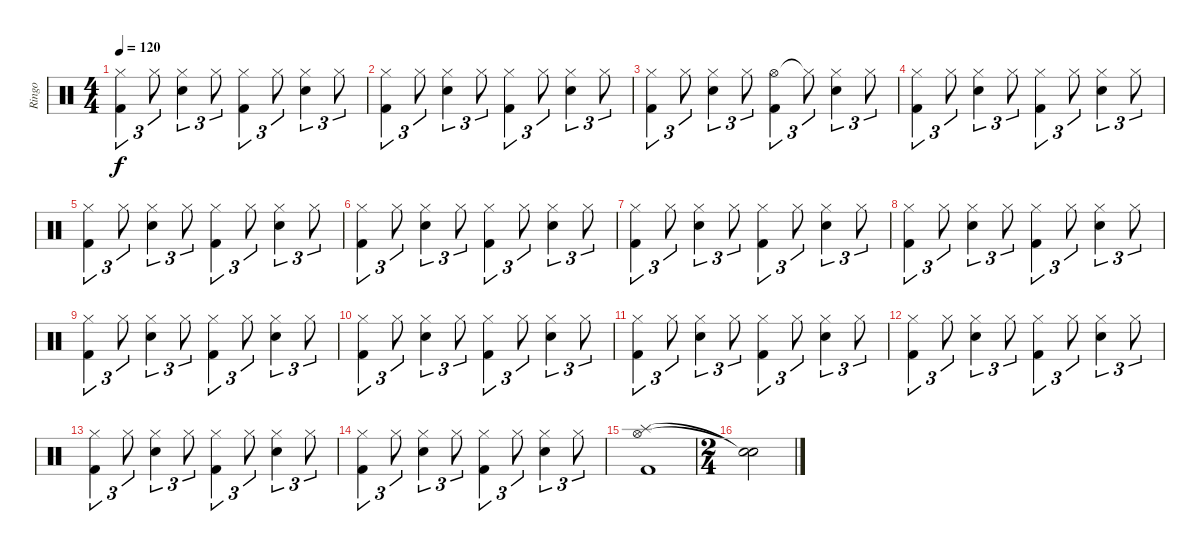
\track ("Ringo" "Ringo") {instrument percussion}
\staff {score}
\articulation defaults
\ts (4 4)
\tempo 120
\clef neutral
\ks c
("Hi-Hat (closed)" "Kick (hit) 2").4{tu (3 2) dy f} "Hi-Hat (closed)".8{tu (3 2)} ("Hi-Hat (closed)" "Snare (hit) 2").4{tu (3 2)} "Hi-Hat (closed)".8{tu (3 2)} ("Hi-Hat (closed)" "Kick (hit) 2").4{tu (3 2)} "Hi-Hat (closed)".8{tu (3 2)} ("Hi-Hat (closed)" "Snare (hit) 2").4{tu (3 2)} "Hi-Hat (closed)".8{tu (3 2)} |
("Hi-Hat (closed)" "Kick (hit) 2").4{tu (3 2)} "Hi-Hat (closed)".8{tu (3 2)} ("Hi-Hat (closed)" "Snare (hit) 2").4{tu (3 2)} "Hi-Hat (closed)".8{tu (3 2)} ("Hi-Hat (closed)" "Kick (hit) 2").4{tu (3 2)} "Hi-Hat (closed)".8{tu (3 2)} ("Hi-Hat (closed)" "Snare (hit) 2").4{tu (3 2)} "Hi-Hat (closed)".8{tu (3 2)} |
("Hi-Hat (closed)" "Kick (hit) 2").4{tu (3 2)} "Hi-Hat (closed)".8{tu (3 2)} ("Hi-Hat (closed)" "Snare (hit) 2").4{tu (3 2)} "Hi-Hat (closed)".8{tu (3 2)} ("Hi-Hat (open)" "Kick (hit) 2").4{tu (3 2)} "Hi-Hat (closed)"{t}.8{tu (3 2)} ("Hi-Hat (closed)" "Snare (hit) 2").4{tu (3 2)} "Hi-Hat (closed)".8{tu (3 2)} |
("Hi-Hat (closed)" "Kick (hit) 2").4{tu (3 2)} "Hi-Hat (closed)".8{tu (3 2)} ("Hi-Hat (closed)" "Snare (hit) 2").4{tu (3 2)} "Hi-Hat (closed)".8{tu (3 2)} ("Hi-Hat (closed)" "Kick (hit) 2").4{tu (3 2)} "Hi-Hat (closed)".8{tu (3 2)} ("Hi-Hat (closed)" "Snare (hit) 2").4{tu (3 2)} "Hi-Hat (closed)".8{tu (3 2)} |
("Hi-Hat (closed)" "Kick (hit) 2").4{tu (3 2)} "Hi-Hat (closed)".8{tu (3 2)} ("Hi-Hat (closed)" "Snare (hit) 2").4{tu (3 2)} "Hi-Hat (closed)".8{tu (3 2)} ("Hi-Hat (closed)" "Kick (hit) 2").4{tu (3 2)} "Hi-Hat (closed)".8{tu (3 2)} ("Hi-Hat (closed)" "Snare (hit) 2").4{tu (3 2)} "Hi-Hat (closed)".8{tu (3 2)} |
("Hi-Hat (closed)" "Kick (hit) 2").4{tu (3 2)} "Hi-Hat (closed)".8{tu (3 2)} ("Hi-Hat (closed)" "Snare (hit) 2").4{tu (3 2)} "Hi-Hat (closed)".8{tu (3 2)} ("Hi-Hat (closed)" "Kick (hit) 2").4{tu (3 2)} "Hi-Hat (closed)".8{tu (3 2)} ("Hi-Hat (closed)" "Snare (hit) 2").4{tu (3 2)} "Hi-Hat (closed)".8{tu (3 2)} |
("Hi-Hat (closed)" "Kick (hit) 2").4{tu (3 2)} "Hi-Hat (closed)".8{tu (3 2)} ("Hi-Hat (closed)" "Snare (hit) 2").4{tu (3 2)} "Hi-Hat (closed)".8{tu (3 2)} ("Hi-Hat (closed)" "Kick (hit) 2").4{tu (3 2)} "Hi-Hat (closed)".8{tu (3 2)} ("Hi-Hat (closed)" "Snare (hit) 2").4{tu (3 2)} "Hi-Hat (closed)".8{tu (3 2)} |
("Hi-Hat (closed)" "Kick (hit) 2").4{tu (3 2)} "Hi-Hat (closed)".8{tu (3 2)} ("Hi-Hat (closed)" "Snare (hit) 2").4{tu (3 2)} "Hi-Hat (closed)".8{tu (3 2)} ("Hi-Hat (closed)" "Kick (hit) 2").4{tu (3 2)} "Hi-Hat (closed)".8{tu (3 2)} ("Hi-Hat (closed)" "Snare (hit) 2").4{tu (3 2)} "Hi-Hat (closed)".8{tu (3 2)} |
("Hi-Hat (closed)" "Kick (hit) 2").4{tu (3 2)} "Hi-Hat (closed)".8{tu (3 2)} ("Hi-Hat (closed)" "Snare (hit) 2").4{tu (3 2)} "Hi-Hat (closed)".8{tu (3 2)} ("Hi-Hat (closed)" "Kick (hit) 2").4{tu (3 2)} "Hi-Hat (closed)".8{tu (3 2)} ("Hi-Hat (closed)" "Snare (hit) 2").4{tu (3 2)} "Hi-Hat (closed)".8{tu (3 2)} |
("Hi-Hat (closed)" "Kick (hit) 2").4{tu (3 2)} "Hi-Hat (closed)".8{tu (3 2)} ("Hi-Hat (closed)" "Snare (hit) 2").4{tu (3 2)} "Hi-Hat (closed)".8{tu (3 2)} ("Hi-Hat (closed)" "Kick (hit) 2").4{tu (3 2)} "Hi-Hat (closed)".8{tu (3 2)} ("Hi-Hat (closed)" "Snare (hit) 2").4{tu (3 2)} "Hi-Hat (closed)".8{tu (3 2)} |
("Hi-Hat (closed)" "Kick (hit) 2").4{tu (3 2)} "Hi-Hat (closed)".8{tu (3 2)} ("Hi-Hat (closed)" "Snare (hit) 2").4{tu (3 2)} "Hi-Hat (closed)".8{tu (3 2)} ("Hi-Hat (closed)" "Kick (hit) 2").4{tu (3 2)} "Hi-Hat (closed)".8{tu (3 2)} ("Hi-Hat (closed)" "Snare (hit) 2").4{tu (3 2)} "Hi-Hat (closed)".8{tu (3 2)} |
("Hi-Hat (closed)" "Kick (hit) 2").4{tu (3 2)} "Hi-Hat (closed)".8{tu (3 2)} ("Hi-Hat (closed)" "Snare (hit) 2").4{tu (3 2)} "Hi-Hat (closed)".8{tu (3 2)} ("Hi-Hat (closed)" "Kick (hit) 2").4{tu (3 2)} "Hi-Hat (closed)".8{tu (3 2)} ("Hi-Hat (closed)" "Snare (hit) 2").4{tu (3 2)} "Hi-Hat (closed)".8{tu (3 2)} |
("Hi-Hat (closed)" "Kick (hit) 2").4{tu (3 2)} "Hi-Hat (closed)".8{tu (3 2)} ("Hi-Hat (closed)" "Snare (hit) 2").4{tu (3 2)} "Hi-Hat (closed)".8{tu (3 2)} ("Hi-Hat (closed)" "Kick (hit) 2").4{tu (3 2)} "Hi-Hat (closed)".8{tu (3 2)} ("Hi-Hat (closed)" "Snare (hit) 2").4{tu (3 2)} "Hi-Hat (closed)".8{tu (3 2)} |
("Hi-Hat (closed)" "Kick (hit) 2").4{tu (3 2)} "Hi-Hat (closed)".8{tu (3 2)} ("Hi-Hat (closed)" "Snare (hit) 2").4{tu (3 2)} "Hi-Hat (closed)".8{tu (3 2)} ("Hi-Hat (closed)" "Kick (hit) 2").4{tu (3 2)} "Hi-Hat (closed)".8{tu (3 2)} ("Hi-Hat (closed)" "Snare (hit) 2").4{tu (3 2)} "Hi-Hat (closed)".8{tu (3 2)} |
("Splash (hit)" "Hi-Hat (open)" "Kick (hit) 2").1 |
\ts (2 4)
("Snare (hit)"{t} "Snare (hit)"{t}).2
